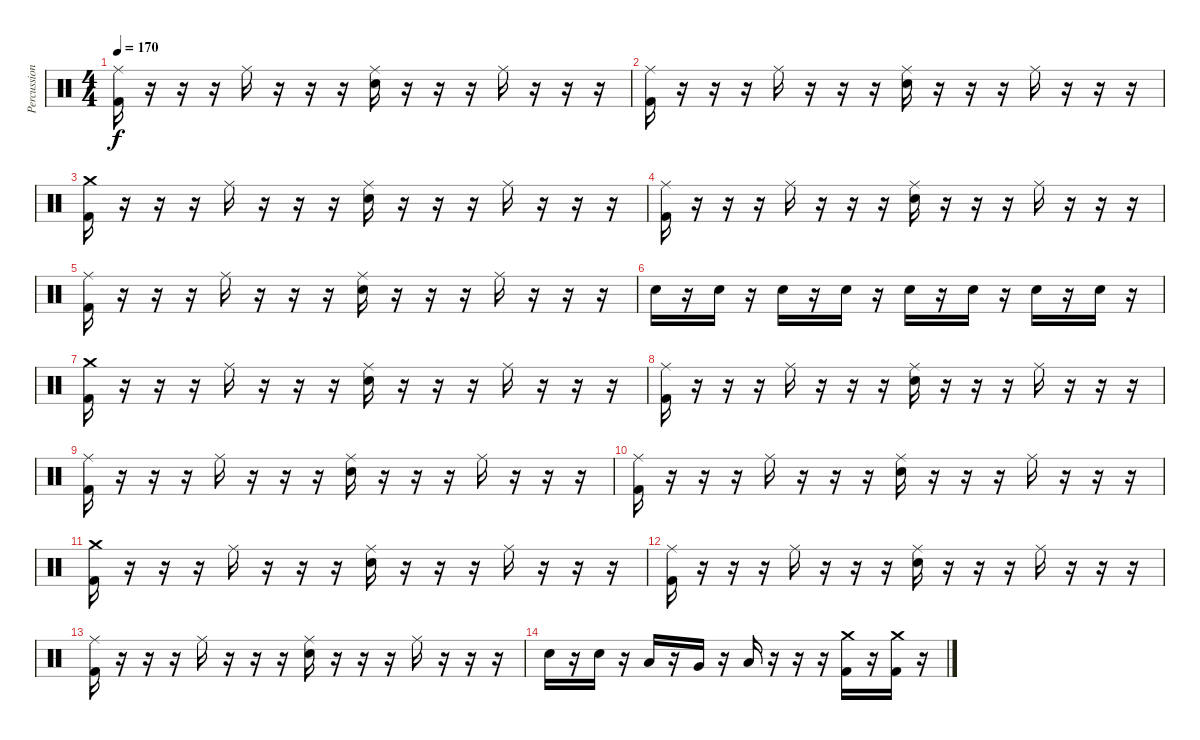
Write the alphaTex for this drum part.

\track ("Percussion" "Percussion") {instrument percussion}
\staff {score}
\articulation defaults
\ts (4 4)
\tempo 170
\clef neutral
\ks c
("Ride (middle)" "Kick (hit) 2").16{dy f} r.16 r.16 r.16 "Ride (middle)".16 r.16 r.16 r.16 ("Ride (middle)" "Snare (hit) 2").16 r.16 r.16 r.16 "Ride (middle)".16 r.16 r.16 r.16 |
("Ride (middle)" "Kick (hit) 2").16 r.16 r.16 r.16 "Ride (middle)".16 r.16 r.16 r.16 ("Ride (middle)" "Snare (hit) 2").16 r.16 r.16 r.16 "Ride (middle)".16 r.16 r.16 r.16 |
("Crash medium (hit)" "Kick (hit) 2").16 r.16 r.16 r.16 "Ride (middle)".16 r.16 r.16 r.16 ("Ride (middle)" "Snare (hit) 2").16 r.16 r.16 r.16 "Ride (middle)".16 r.16 r.16 r.16 |
("Ride (middle)" "Kick (hit) 2").16 r.16 r.16 r.16 "Ride (middle)".16 r.16 r.16 r.16 ("Ride (middle)" "Snare (hit) 2").16 r.16 r.16 r.16 "Ride (middle)".16 r.16 r.16 r.16 |
("Ride (middle)" "Kick (hit) 2").16 r.16 r.16 r.16 "Ride (middle)".16 r.16 r.16 r.16 ("Ride (middle)" "Snare (hit) 2").16 r.16 r.16 r.16 "Ride (middle)".16 r.16 r.16 r.16 |
"Snare (hit) 2".16 r.16 "Snare (hit) 2".16 r.16 "Snare (hit) 2".16 r.16 "Snare (hit) 2".16 r.16 "Snare (hit) 2".16 r.16 "Snare (hit) 2".16 r.16 "Snare (hit) 2".16 r.16 "Snare (hit) 2".16 r.16 |
("Crash medium (hit)" "Kick (hit) 2").16 r.16 r.16 r.16 "Ride (middle)".16 r.16 r.16 r.16 ("Ride (middle)" "Snare (hit) 2").16 r.16 r.16 r.16 "Ride (middle)".16 r.16 r.16 r.16 |
("Ride (middle)" "Kick (hit) 2").16 r.16 r.16 r.16 "Ride (middle)".16 r.16 r.16 r.16 ("Ride (middle)" "Snare (hit) 2").16 r.16 r.16 r.16 "Ride (middle)".16 r.16 r.16 r.16 |
("Ride (middle)" "Kick (hit) 2").16 r.16 r.16 r.16 "Ride (middle)".16 r.16 r.16 r.16 ("Ride (middle)" "Snare (hit) 2").16 r.16 r.16 r.16 "Ride (middle)".16 r.16 r.16 r.16 |
("Ride (middle)" "Kick (hit) 2").16 r.16 r.16 r.16 "Ride (middle)".16 r.16 r.16 r.16 ("Ride (middle)" "Snare (hit) 2").16 r.16 r.16 r.16 "Ride (middle)".16 r.16 r.16 r.16 |
("Crash medium (hit)" "Kick (hit) 2").16 r.16 r.16 r.16 "Ride (middle)".16 r.16 r.16 r.16 ("Ride (middle)" "Snare (hit) 2").16 r.16 r.16 r.16 "Ride (middle)".16 r.16 r.16 r.16 |
("Ride (middle)" "Kick (hit) 2").16 r.16 r.16 r.16 "Ride (middle)".16 r.16 r.16 r.16 ("Ride (middle)" "Snare (hit) 2").16 r.16 r.16 r.16 "Ride (middle)".16 r.16 r.16 r.16 |
("Ride (middle)" "Kick (hit) 2").16 r.16 r.16 r.16 "Ride (middle)".16 r.16 r.16 r.16 ("Ride (middle)" "Snare (hit) 2").16 r.16 r.16 r.16 "Ride (middle)".16 r.16 r.16 r.16 |
"Snare (hit) 2".16 r.16 "Snare (hit) 2".16 r.16 "Low Floor Tom (hit)".16 r.16 "Very Low Tom (hit)".16 r.16 "Low Tom (hit)".16 r.16 r.16 r.16 ("Crash medium (hit)" "Kick (hit) 2").16 r.16 ("Crash medium (hit)" "Kick (hit) 2").16 r.16
